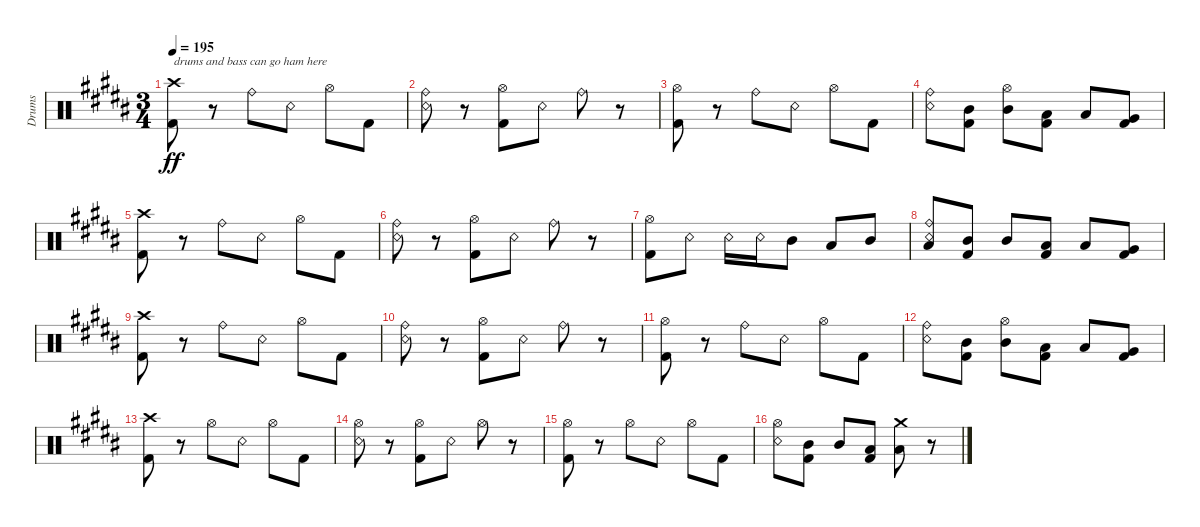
\bracketExtendMode groupsimilarinstruments
\otherSystemsTrackNameOrientation horizontal
\track ("Drumkit" "Drums") {instrument percussion}
\staff {score}
\articulation defaults
\ts (3 4)
\tempo 195
\clef neutral
\ks b
("Kick (hit) 2"{acc bb} "Crash high (hit)"{acc bb}).8{txt "drums and bass can go ham here" dy ff beam Down} r.8{beam Down} "Ride (bell)"{acc bb}.8{beam Down} "Snare (rim shot)"{acc bb}.8{beam Down} "Hi-Hat (open)"{acc bb}.8{beam Down} "Kick (hit) 2"{acc bb}.8{beam Down} |
("Snare (rim shot)"{acc bb} "Ride (bell)"{acc bb}).8{beam Down} r.8{beam Down} ("Kick (hit) 2"{acc bb} "Hi-Hat (open)"{acc bb}).8{beam Down} "Snare (rim shot)"{acc bb}.8{beam Down} "Ride (bell)"{acc bb}.8{beam Down} r.8{beam Down} |
("Kick (hit) 2"{acc bb} "Hi-Hat (open)"{acc bb}).8{beam Down} r.8{beam Down} "Ride (bell)"{acc bb}.8{beam Down} "Snare (rim shot)"{acc bb}.8{beam Down} "Hi-Hat (open)"{acc bb}.8{beam Down} "Kick (hit) 2"{acc bb}.8{beam Down} |
("Snare (rim shot)"{acc bb} "Ride (bell)"{acc bb}).8{beam Down} ("Kick (hit) 2"{acc bb} "Mid Tom (hit)"{acc bb}).8{beam Down} ("Hi-Hat (open)"{acc bb} "Mid Tom (hit)"{acc bb}).8{beam Down} ("Low Tom (hit)"{acc bb} "Kick (hit) 2"{acc bb}).8{beam Down} "Low Tom (hit)"{acc bb}.8{beam Up} ("Very Low Tom (hit)"{acc bb} "Kick (hit) 2"{acc bb}).8{beam Up} |
("Kick (hit) 2"{acc bb} "Crash high (hit)"{acc bb}).8{beam Down} r.8{beam Down} "Ride (bell)"{acc bb}.8{beam Down} "Snare (rim shot)"{acc bb}.8{beam Down} "Hi-Hat (open)"{acc bb}.8{beam Down} "Kick (hit) 2"{acc bb}.8{beam Down} |
("Snare (rim shot)"{acc bb} "Ride (bell)"{acc bb}).8{beam Down} r.8{beam Down} ("Kick (hit) 2"{acc bb} "Hi-Hat (open)"{acc bb}).8{beam Down} "Snare (rim shot)"{acc bb}.8{beam Down} "Ride (bell)"{acc bb}.8{beam Down} r.8{beam Down} |
("Kick (hit) 2"{acc bb} "Hi-Hat (open)"{acc bb}).8{beam Down} "Snare (rim shot)"{acc bb}.8{beam Down} "Snare (rim shot)"{acc bb}.16{beam Down} "Snare (rim shot)"{acc bb}.16{beam Down} "Mid Tom (hit)"{acc bb}.8{beam Down} "Low Tom (hit)"{acc bb}.8{beam Up} "Mid Tom (hit)"{acc bb}.8{beam Up} |
("Snare (rim shot)"{acc bb} "Ride (bell)"{acc bb} "Low Tom (hit)"{acc bb}).8{beam Up} ("Kick (hit) 2"{acc bb} "Mid Tom (hit)"{acc bb}).8{beam Up} "Mid Tom (hit)"{acc bb}.8{beam Up} ("Low Tom (hit)"{acc bb} "Kick (hit) 2"{acc bb}).8{beam Up} "Low Tom (hit)"{acc bb}.8{beam Up} ("Very Low Tom (hit)"{acc bb} "Kick (hit) 2"{acc bb}).8{beam Up} |
("Kick (hit) 2"{acc bb} "Crash high (hit)"{acc bb}).8{beam Down} r.8{beam Down} "Ride (bell)"{acc bb}.8{beam Down} "Snare (rim shot)"{acc bb}.8{beam Down} "Hi-Hat (open)"{acc bb}.8{beam Down} "Kick (hit) 2"{acc bb}.8{beam Down} |
("Snare (rim shot)"{acc bb} "Ride (bell)"{acc bb}).8{beam Down} r.8{beam Down} ("Kick (hit) 2"{acc bb} "Hi-Hat (open)"{acc bb}).8{beam Down} "Snare (rim shot)"{acc bb}.8{beam Down} "Ride (bell)"{acc bb}.8{beam Down} r.8{beam Down} |
("Kick (hit) 2"{acc bb} "Hi-Hat (open)"{acc bb}).8{beam Down} r.8{beam Down} "Ride (bell)"{acc bb}.8{beam Down} "Snare (rim shot)"{acc bb}.8{beam Down} "Hi-Hat (open)"{acc bb}.8{beam Down} "Kick (hit) 2"{acc bb}.8{beam Down} |
("Snare (rim shot)"{acc bb} "Ride (bell)"{acc bb}).8{beam Down} ("Kick (hit) 2"{acc bb} "Mid Tom (hit)"{acc bb}).8{beam Down} ("Hi-Hat (open)"{acc bb} "Mid Tom (hit)"{acc bb}).8{beam Down} ("Low Tom (hit)"{acc bb} "Kick (hit) 2"{acc bb}).8{beam Down} "Low Tom (hit)"{acc bb}.8{beam Up} ("Very Low Tom (hit)"{acc bb} "Kick (hit) 2"{acc bb}).8{beam Up} |
("Kick (hit) 2"{acc bb} "Crash high (hit)"{acc bb}).8{beam Down} r.8{beam Down} "Hi-Hat (open)"{acc bb}.8{beam Down} "Snare (rim shot)"{acc bb}.8{beam Down} "Hi-Hat (open)"{acc bb}.8{beam Down} "Kick (hit) 2"{acc bb}.8{beam Down} |
("Snare (rim shot)"{acc bb} "Hi-Hat (open)"{acc bb}).8{beam Down} r.8{beam Down} ("Kick (hit) 2"{acc bb} "Hi-Hat (open)"{acc bb}).8{beam Down} "Snare (rim shot)"{acc bb}.8{beam Down} "Hi-Hat (open)"{acc bb}.8{beam Down} r.8{beam Down} |
("Kick (hit) 2"{acc bb} "Hi-Hat (open)"{acc bb}).8{beam Down} r.8{beam Down} "Hi-Hat (open)"{acc bb}.8{beam Down} "Snare (rim shot)"{acc bb}.8{beam Down} "Hi-Hat (open)"{acc bb}.8{beam Down} "Kick (hit) 2"{acc bb}.8{beam Down} |
("Snare (rim shot)"{acc bb} "Hi-Hat (open)"{acc bb}).8{beam Down} ("Kick (hit) 2"{acc bb} "Mid Tom (hit)"{acc bb}).8{beam Down} "Mid Tom (hit)"{acc bb}.8{beam Up} ("Low Tom (hit)"{acc bb} "Kick (hit) 2"{acc bb}).8{beam Up} ("Low Tom (hit)"{acc bb} "Crash medium (hit)"{acc bb}).8{beam Down} r.8{beam Down}
